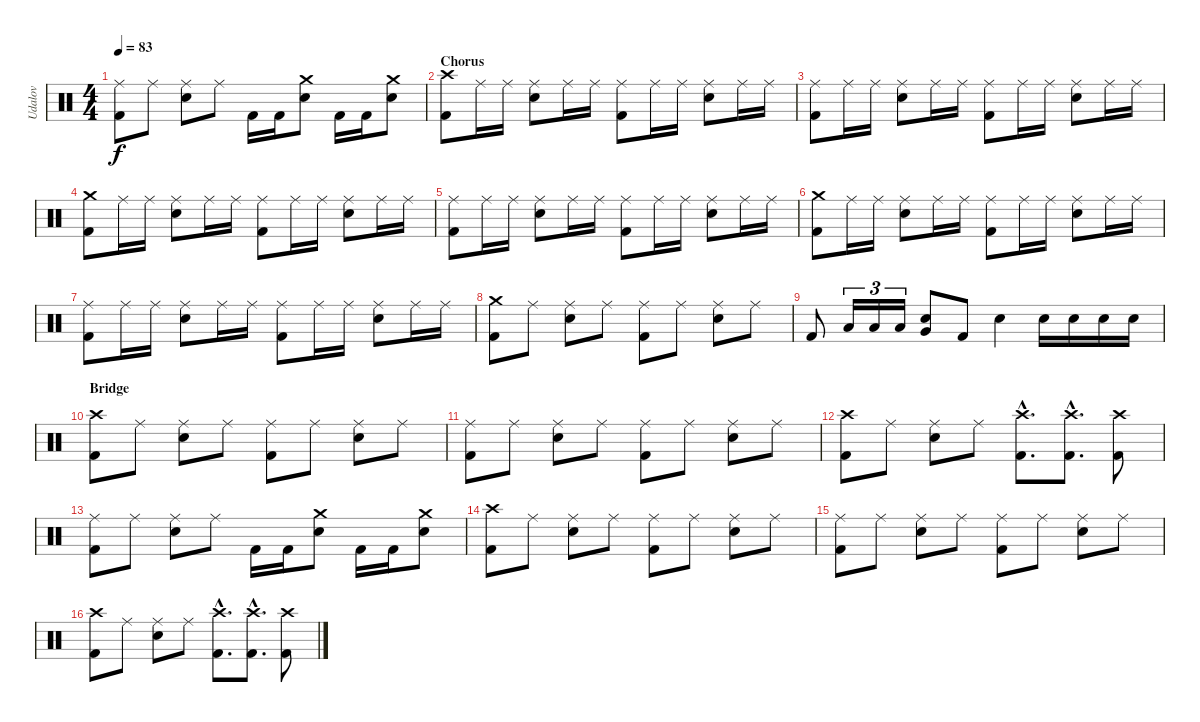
\track ("Udalov" "Udalov") {instrument percussion}
\staff {score}
\articulation defaults
\ts (4 4)
\tempo 83
\clef neutral
\ks c
("Kick (hit) 2" "Ride (middle)").8{dy f} "Ride (middle)".8 ("Snare (hit) 2" "Ride (middle)").8 "Ride (middle)".8 "Kick (hit) 2".16 "Kick (hit) 2".16 ("Snare (hit) 2" "Crash medium (hit)").8 "Kick (hit) 2".16 "Kick (hit) 2".16 ("Snare (hit) 2" "Crash medium (hit)").8 |
\section ("" "Chorus")
("Kick (hit) 2" "Crash high (hit)").8 "Ride (middle)".16 "Ride (middle)".16 ("Snare (hit) 2" "Ride (middle)").8 "Ride (middle)".16 "Ride (middle)".16 ("Kick (hit) 2" "Ride (middle)").8 "Ride (middle)".16 "Ride (middle)".16 ("Snare (hit) 2" "Ride (middle)").8 "Ride (middle)".16 "Ride (middle)".16 |
("Kick (hit) 2" "Ride (middle)").8 "Ride (middle)".16 "Ride (middle)".16 ("Snare (hit) 2" "Ride (middle)").8 "Ride (middle)".16 "Ride (middle)".16 ("Kick (hit) 2" "Ride (middle)").8 "Ride (middle)".16 "Ride (middle)".16 ("Snare (hit) 2" "Ride (middle)").8 "Ride (middle)".16 "Ride (middle)".16 |
("Kick (hit) 2" "Crash medium (hit)").8 "Ride (middle)".16 "Ride (middle)".16 ("Snare (hit) 2" "Ride (middle)").8 "Ride (middle)".16 "Ride (middle)".16 ("Kick (hit) 2" "Ride (middle)").8 "Ride (middle)".16 "Ride (middle)".16 ("Snare (hit) 2" "Ride (middle)").8 "Ride (middle)".16 "Ride (middle)".16 |
("Kick (hit) 2" "Ride (middle)").8 "Ride (middle)".16 "Ride (middle)".16 ("Snare (hit) 2" "Ride (middle)").8 "Ride (middle)".16 "Ride (middle)".16 ("Kick (hit) 2" "Ride (middle)").8 "Ride (middle)".16 "Ride (middle)".16 ("Snare (hit) 2" "Ride (middle)").8 "Ride (middle)".16 "Ride (middle)".16 |
("Kick (hit) 2" "Crash medium (hit)").8 "Ride (middle)".16 "Ride (middle)".16 ("Snare (hit) 2" "Ride (middle)").8 "Ride (middle)".16 "Ride (middle)".16 ("Kick (hit) 2" "Ride (middle)").8 "Ride (middle)".16 "Ride (middle)".16 ("Snare (hit) 2" "Ride (middle)").8 "Ride (middle)".16 "Ride (middle)".16 |
("Kick (hit) 2" "Ride (middle)").8 "Ride (middle)".16 "Ride (middle)".16 ("Snare (hit) 2" "Ride (middle)").8 "Ride (middle)".16 "Ride (middle)".16 ("Kick (hit) 2" "Ride (middle)").8 "Ride (middle)".16 "Ride (middle)".16 ("Snare (hit) 2" "Ride (middle)").8 "Ride (middle)".16 "Ride (middle)".16 |
("Kick (hit) 2" "Crash medium (hit)").8 "Ride (middle)".8 ("Snare (hit) 2" "Ride (middle)").8 "Ride (middle)".8 ("Kick (hit) 2" "Ride (middle)").8 "Ride (middle)".8 ("Snare (hit) 2" "Ride (middle)").8 "Ride (middle)".8 |
"Kick (hit) 2".8 "Low Tom (hit)".16{tu (3 2)} "Low Tom (hit)".16{tu (3 2)} "Low Tom (hit)".16{tu (3 2)} ("Snare (hit) 2" "Very Low Tom (hit)").8 "Kick (hit) 2".8 "Snare (hit) 2".4 "Snare (hit) 2".16 "Snare (hit) 2".16 "Snare (hit) 2".16 "Snare (hit) 2".16 |
\section ("" "Bridge")
("Kick (hit) 2" "Crash high (hit)").8 "Ride (middle)".8 ("Snare (hit) 2" "Ride (middle)").8 "Ride (middle)".8 ("Kick (hit) 2" "Ride (middle)").8 "Ride (middle)".8 ("Snare (hit) 2" "Ride (middle)").8 "Ride (middle)".8 |
("Kick (hit) 2" "Ride (middle)").8 "Ride (middle)".8 ("Snare (hit) 2" "Ride (middle)").8 "Ride (middle)".8 ("Kick (hit) 2" "Ride (middle)").8 "Ride (middle)".8 ("Snare (hit) 2" "Ride (middle)").8 "Ride (middle)".8 |
("Kick (hit) 2" "Crash high (hit)").8 "Ride (middle)".8 ("Snare (hit) 2" "Ride (middle)").8 "Ride (middle)".8 ("Kick (hit) 2"{hac} "Crash high (hit)"{hac}).8{d} ("Kick (hit) 2"{hac} "Crash high (hit)"{hac}).8{d} ("Kick (hit) 2" "Crash high (hit)").8 |
("Kick (hit) 2" "Ride (middle)").8 "Ride (middle)".8 ("Snare (hit) 2" "Ride (middle)").8 "Ride (middle)".8 "Kick (hit) 2".16 "Kick (hit) 2".16 ("Snare (hit) 2" "Crash medium (hit)").8 "Kick (hit) 2".16 "Kick (hit) 2".16 ("Snare (hit) 2" "Crash medium (hit)").8 |
("Kick (hit) 2" "Crash high (hit)").8 "Ride (middle)".8 ("Snare (hit) 2" "Ride (middle)").8 "Ride (middle)".8 ("Kick (hit) 2" "Ride (middle)").8 "Ride (middle)".8 ("Snare (hit) 2" "Ride (middle)").8 "Ride (middle)".8 |
("Kick (hit) 2" "Ride (middle)").8 "Ride (middle)".8 ("Snare (hit) 2" "Ride (middle)").8 "Ride (middle)".8 ("Kick (hit) 2" "Ride (middle)").8 "Ride (middle)".8 ("Snare (hit) 2" "Ride (middle)").8 "Ride (middle)".8 |
("Kick (hit) 2" "Crash high (hit)").8 "Ride (middle)".8 ("Snare (hit) 2" "Ride (middle)").8 "Ride (middle)".8 ("Kick (hit) 2"{hac} "Crash high (hit)"{hac}).8{d} ("Kick (hit) 2"{hac} "Crash high (hit)"{hac}).8{d} ("Kick (hit) 2" "Crash high (hit)").8
